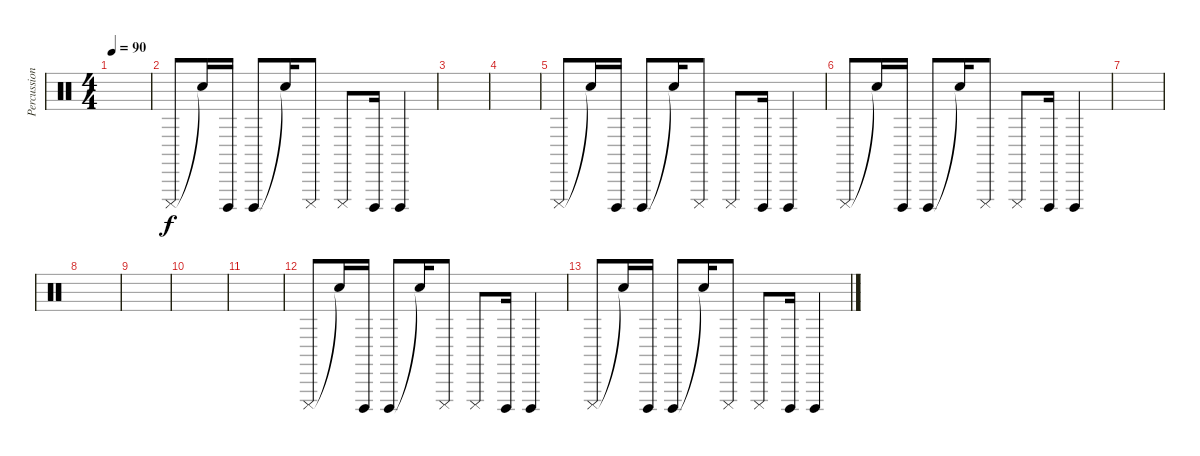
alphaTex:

\track ("Percussions" "Percussion") {instrument percussion}
\staff {score}
\articulation defaults
\ts (4 4)
\tempo 90
\clef neutral
\ks c
|
"Cuica (mute)".8 "Snare (hit)"{t}.16 "Cuica (open)".16 "Cuica (open)".8 "Snare (hit)"{t}.16 "Cuica (mute)".8 "Cuica (mute)".8 "Cuica (open)".16 "Cuica (open)".4 |
|
|
"Cuica (mute)".8 "Snare (hit)"{t}.16 "Cuica (open)".16 "Cuica (open)".8 "Snare (hit)"{t}.16 "Cuica (mute)".8 "Cuica (mute)".8 "Cuica (open)".16 "Cuica (open)".4 |
"Cuica (mute)".8 "Snare (hit)"{t}.16 "Cuica (open)".16 "Cuica (open)".8 "Snare (hit)"{t}.16 "Cuica (mute)".8 "Cuica (mute)".8 "Cuica (open)".16 "Cuica (open)".4 |
|
|
|
|
|
"Cuica (mute)".8 "Snare (hit)"{t}.16 "Cuica (open)".16 "Cuica (open)".8 "Snare (hit)"{t}.16 "Cuica (mute)".8 "Cuica (mute)".8 "Cuica (open)".16 "Cuica (open)".4 |
"Cuica (mute)".8 "Snare (hit)"{t}.16 "Cuica (open)".16 "Cuica (open)".8 "Snare (hit)"{t}.16 "Cuica (mute)".8 "Cuica (mute)".8 "Cuica (open)".16 "Cuica (open)".4
